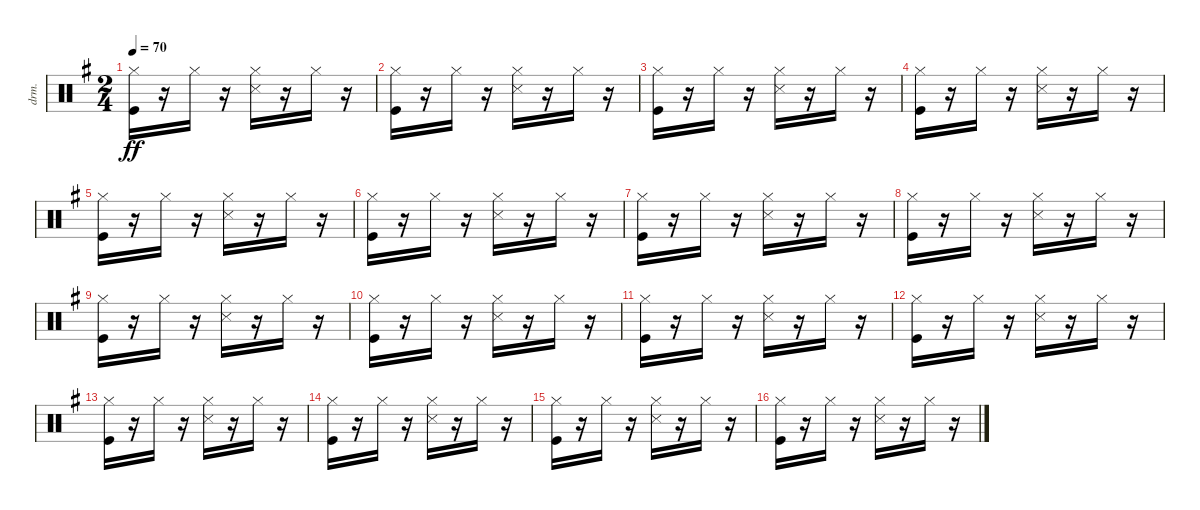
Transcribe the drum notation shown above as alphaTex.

\bracketExtendMode nobrackets
\track ("Track10" "drm.") {instrument percussion}
\staff {score}
\articulation defaults
\ts (2 4)
\tempo 70
\clef neutral
\ks eminor
("Kick (hit)"{acc forcenatural} "Hi-Hat (closed)"{acc #}).16{dy ff} r.16 "Hi-Hat (closed)"{acc #}.16 r.16 ("Snare (side stick) 3"{acc #} "Hi-Hat (closed)"{acc #}).16 r.16 "Hi-Hat (closed)"{acc #}.16 r.16 |
("Kick (hit)"{acc forcenatural} "Hi-Hat (closed)"{acc #}).16 r.16 "Hi-Hat (closed)"{acc #}.16 r.16 ("Snare (side stick) 3"{acc #} "Hi-Hat (closed)"{acc #}).16 r.16 "Hi-Hat (closed)"{acc #}.16 r.16 |
("Kick (hit)"{acc forcenatural} "Hi-Hat (closed)"{acc #}).16 r.16 "Hi-Hat (closed)"{acc #}.16 r.16 ("Snare (side stick) 3"{acc #} "Hi-Hat (closed)"{acc #}).16 r.16 "Hi-Hat (closed)"{acc #}.16 r.16 |
("Kick (hit)"{acc forcenatural} "Hi-Hat (closed)"{acc #}).16 r.16 "Hi-Hat (closed)"{acc #}.16 r.16 ("Snare (side stick) 3"{acc #} "Hi-Hat (closed)"{acc #}).16 r.16 "Hi-Hat (closed)"{acc #}.16 r.16 |
("Kick (hit)"{acc forcenatural} "Hi-Hat (closed)"{acc #}).16 r.16 "Hi-Hat (closed)"{acc #}.16 r.16 ("Snare (side stick) 3"{acc #} "Hi-Hat (closed)"{acc #}).16 r.16 "Hi-Hat (closed)"{acc #}.16 r.16 |
("Kick (hit)"{acc forcenatural} "Hi-Hat (closed)"{acc #}).16 r.16 "Hi-Hat (closed)"{acc #}.16 r.16 ("Snare (side stick) 3"{acc #} "Hi-Hat (closed)"{acc #}).16 r.16 "Hi-Hat (closed)"{acc #}.16 r.16 |
("Kick (hit)"{acc forcenatural} "Hi-Hat (closed)"{acc #}).16 r.16 "Hi-Hat (closed)"{acc #}.16 r.16 ("Snare (side stick) 3"{acc #} "Hi-Hat (closed)"{acc #}).16 r.16 "Hi-Hat (closed)"{acc #}.16 r.16 |
("Kick (hit)"{acc forcenatural} "Hi-Hat (closed)"{acc #}).16 r.16 "Hi-Hat (closed)"{acc #}.16 r.16 ("Snare (side stick) 3"{acc #} "Hi-Hat (closed)"{acc #}).16 r.16 "Hi-Hat (closed)"{acc #}.16 r.16 |
("Kick (hit)"{acc forcenatural} "Hi-Hat (closed)"{acc #}).16 r.16 "Hi-Hat (closed)"{acc #}.16 r.16 ("Snare (side stick) 3"{acc #} "Hi-Hat (closed)"{acc #}).16 r.16 "Hi-Hat (closed)"{acc #}.16 r.16 |
("Kick (hit)"{acc forcenatural} "Hi-Hat (closed)"{acc #}).16 r.16 "Hi-Hat (closed)"{acc #}.16 r.16 ("Snare (side stick) 3"{acc #} "Hi-Hat (closed)"{acc #}).16 r.16 "Hi-Hat (closed)"{acc #}.16 r.16 |
("Kick (hit)"{acc forcenatural} "Hi-Hat (closed)"{acc #}).16 r.16 "Hi-Hat (closed)"{acc #}.16 r.16 ("Snare (side stick) 3"{acc #} "Hi-Hat (closed)"{acc #}).16 r.16 "Hi-Hat (closed)"{acc #}.16 r.16 |
("Kick (hit)"{acc forcenatural} "Hi-Hat (closed)"{acc #}).16 r.16 "Hi-Hat (closed)"{acc #}.16 r.16 ("Snare (side stick) 3"{acc #} "Hi-Hat (closed)"{acc #}).16 r.16 "Hi-Hat (closed)"{acc #}.16 r.16 |
("Kick (hit)"{acc forcenatural} "Hi-Hat (closed)"{acc #}).16 r.16 "Hi-Hat (closed)"{acc #}.16 r.16 ("Snare (side stick) 3"{acc #} "Hi-Hat (closed)"{acc #}).16 r.16 "Hi-Hat (closed)"{acc #}.16 r.16 |
("Kick (hit)"{acc forcenatural} "Hi-Hat (closed)"{acc #}).16 r.16 "Hi-Hat (closed)"{acc #}.16 r.16 ("Snare (side stick) 3"{acc #} "Hi-Hat (closed)"{acc #}).16 r.16 "Hi-Hat (closed)"{acc #}.16 r.16 |
("Kick (hit)"{acc forcenatural} "Hi-Hat (closed)"{acc #}).16 r.16 "Hi-Hat (closed)"{acc #}.16 r.16 ("Snare (side stick) 3"{acc #} "Hi-Hat (closed)"{acc #}).16 r.16 "Hi-Hat (closed)"{acc #}.16 r.16 |
("Kick (hit)"{acc forcenatural} "Hi-Hat (closed)"{acc #}).16 r.16 "Hi-Hat (closed)"{acc #}.16 r.16 ("Snare (side stick) 3"{acc #} "Hi-Hat (closed)"{acc #}).16 r.16 "Hi-Hat (closed)"{acc #}.16 r.16
